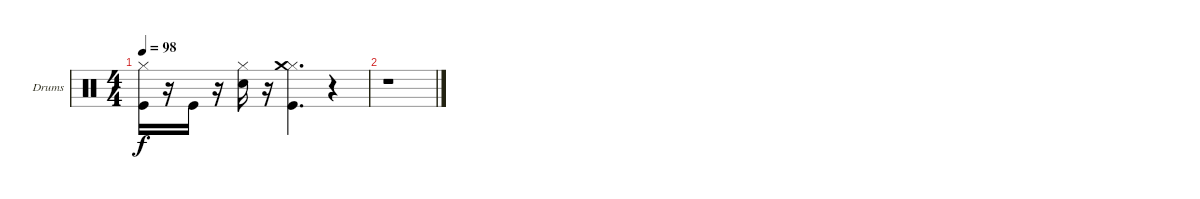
\bracketExtendMode groupsimilarinstruments
\firstSystemTrackNameOrientation horizontal
\otherSystemsTrackNameOrientation horizontal
\track ("Drumkit" "Drums") {instrument percussion}
\staff {score}
\articulation defaults
\ts (4 4)
\tempo 98
\clef neutral
\ks c
("Kick (hit)" "Hi-Hat (closed)").16{dy f} r.16 "Kick (hit)".16 r.16 ("Snare (hit) 2" "Hi-Hat (closed)").16 r.16 ("Kick (hit)" "Hi-Hat (closed)" "Crash medium (hit)").4{d} r.4 |
r.1
